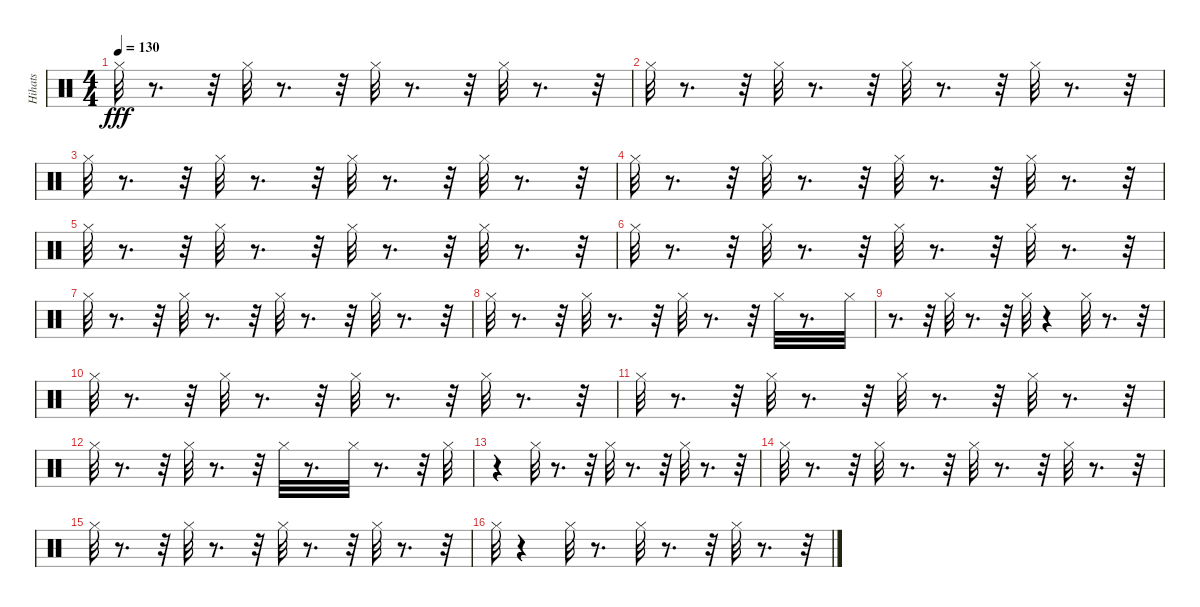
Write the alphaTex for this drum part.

\track ("Hihats" "Hihats") {instrument percussion}
\staff {score}
\articulation defaults
\ts (4 4)
\tempo 130
\clef neutral
\ks c "Hi-Hat (closed)".32{dy fff}
r.8{d} r.32 "Hi-Hat (closed)".32 r.8{d} r.32 "Hi-Hat (closed)".32 r.8{d} r.32 "Hi-Hat (closed)".32 r.8{d} r.32 |
"Hi-Hat (closed)".32 r.8{d} r.32 "Hi-Hat (closed)".32 r.8{d} r.32 "Hi-Hat (closed)".32 r.8{d} r.32 "Hi-Hat (closed)".32 r.8{d} r.32 |
"Hi-Hat (closed)".32 r.8{d} r.32 "Hi-Hat (closed)".32 r.8{d} r.32 "Hi-Hat (closed)".32 r.8{d} r.32 "Hi-Hat (closed)".32 r.8{d} r.32 |
"Hi-Hat (closed)".32 r.8{d} r.32 "Hi-Hat (closed)".32 r.8{d} r.32 "Hi-Hat (closed)".32 r.8{d} r.32 "Hi-Hat (closed)".32 r.8{d} r.32 |
"Hi-Hat (closed)".32 r.8{d} r.32 "Hi-Hat (closed)".32 r.8{d} r.32 "Hi-Hat (closed)".32 r.8{d} r.32 "Hi-Hat (closed)".32 r.8{d} r.32 |
"Hi-Hat (closed)".32 r.8{d} r.32 "Hi-Hat (closed)".32 r.8{d} r.32 "Hi-Hat (closed)".32 r.8{d} r.32 "Hi-Hat (closed)".32 r.8{d} r.32 |
"Hi-Hat (closed)".32 r.8{d} r.32 "Hi-Hat (closed)".32 r.8{d} r.32 "Hi-Hat (closed)".32 r.8{d} r.32 "Hi-Hat (closed)".32 r.8{d} r.32 |
"Hi-Hat (closed)".32 r.8{d} r.32 "Hi-Hat (closed)".32 r.8{d} r.32 "Hi-Hat (closed)".32 r.8{d} r.32 "Hi-Hat (closed)".32 r.8{d} "Hi-Hat (closed)".32 |
r.8{d} r.32 "Hi-Hat (closed)".32 r.8{d} r.32 "Hi-Hat (closed)".32 r.4 "Hi-Hat (closed)".32 r.8{d} r.32 |
"Hi-Hat (closed)".32 r.8{d} r.32 "Hi-Hat (closed)".32 r.8{d} r.32 "Hi-Hat (closed)".32 r.8{d} r.32 "Hi-Hat (closed)".32 r.8{d} r.32 |
"Hi-Hat (closed)".32 r.8{d} r.32 "Hi-Hat (closed)".32 r.8{d} r.32 "Hi-Hat (closed)".32 r.8{d} r.32 "Hi-Hat (closed)".32 r.8{d} r.32 |
"Hi-Hat (closed)".32 r.8{d} r.32 "Hi-Hat (closed)".32 r.8{d} r.32 "Hi-Hat (closed)".32 r.8{d} "Hi-Hat (closed)".32 r.8{d} r.32 "Hi-Hat (closed)".32 |
r.4 "Hi-Hat (closed)".32 r.8{d} r.32 "Hi-Hat (closed)".32 r.8{d} r.32 "Hi-Hat (closed)".32 r.8{d} r.32 |
"Hi-Hat (closed)".32 r.8{d} r.32 "Hi-Hat (closed)".32 r.8{d} r.32 "Hi-Hat (closed)".32 r.8{d} r.32 "Hi-Hat (closed)".32 r.8{d} r.32 |
"Hi-Hat (closed)".32 r.8{d} r.32 "Hi-Hat (closed)".32 r.8{d} r.32 "Hi-Hat (closed)".32 r.8{d} r.32 "Hi-Hat (closed)".32 r.8{d} r.32 |
"Hi-Hat (closed)".32 r.4 "Hi-Hat (closed)".32 r.8{d} "Hi-Hat (closed)".32 r.8{d} r.32 "Hi-Hat (closed)".32 r.8{d} r.32
